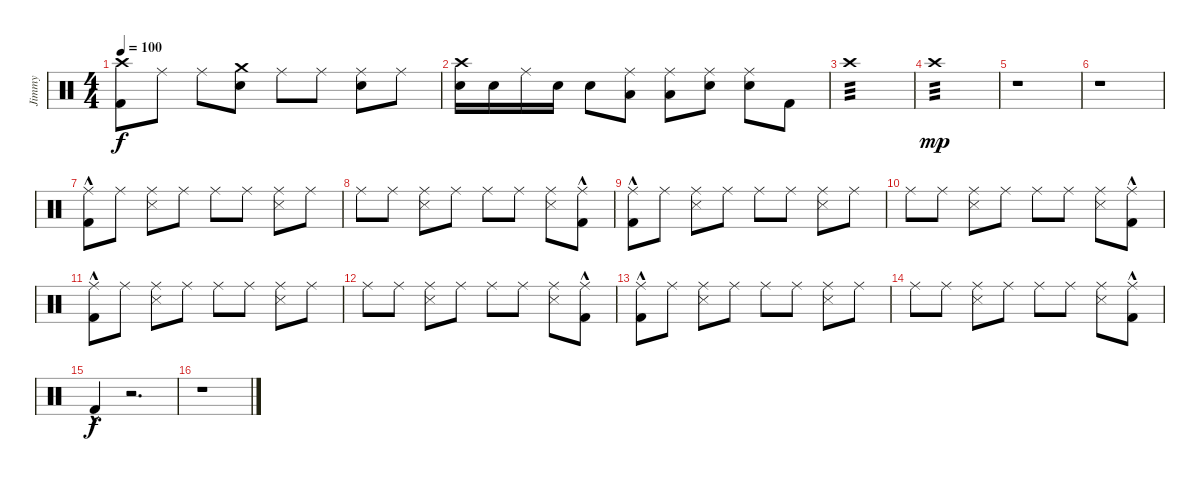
\track ("Jimmy" "Jimmy") {instrument percussion}
\staff {score}
\articulation defaults
\ts (4 4)
\tempo 100
\clef neutral
\ks c
("Crash high (hit)" "Kick (hit) 2").8{dy f} "Ride (middle)".8 "Ride (middle)".8 ("Crash medium (hit)" "Snare (hit) 2").8 "Ride (middle)".8 "Ride (middle)".8 ("Ride (middle)" "Snare (hit) 2").8 "Ride (middle)".8 |
("Crash high (hit)" "Snare (hit) 2").16 "Snare (hit) 2".16 "Ride (middle)".16 "Snare (hit) 2".16 "Snare (hit) 2".8 ("Ride (middle)" "Low Floor Tom (hit)").8 ("Ride (middle)" "Low Tom (hit)").8 ("Ride (middle)" "Snare (hit) 2").8 ("Ride (middle)" "Snare (hit) 2").8 "Kick (hit) 2".8 |
"Crash high (hit)".1{tp 3} |
"Crash high (hit)".1{tp 3 dy mp} |
r.1 |
r.1 |
("Ride (middle)" "Kick (hit) 2"{hac}).8 "Ride (middle)".8 ("Ride (middle)" "Metronome (hit)").8 "Ride (middle)".8 "Ride (middle)".8 "Ride (middle)".8 ("Ride (middle)" "Metronome (hit)").8 "Ride (middle)".8 |
"Ride (middle)".8 "Ride (middle)".8 ("Ride (middle)" "Metronome (hit)").8 "Ride (middle)".8 "Ride (middle)".8 "Ride (middle)".8 ("Ride (middle)" "Metronome (hit)").8 ("Ride (middle)" "Kick (hit) 2"{hac}).8 |
("Ride (middle)" "Kick (hit) 2"{hac}).8 "Ride (middle)".8 ("Ride (middle)" "Metronome (hit)").8 "Ride (middle)".8 "Ride (middle)".8 "Ride (middle)".8 ("Ride (middle)" "Metronome (hit)").8 "Ride (middle)".8 |
"Ride (middle)".8 "Ride (middle)".8 ("Ride (middle)" "Metronome (hit)").8 "Ride (middle)".8 "Ride (middle)".8 "Ride (middle)".8 ("Ride (middle)" "Metronome (hit)").8 ("Ride (middle)" "Kick (hit) 2"{hac}).8 |
("Ride (middle)" "Kick (hit) 2"{hac}).8 "Ride (middle)".8 ("Ride (middle)" "Metronome (hit)").8 "Ride (middle)".8 "Ride (middle)".8 "Ride (middle)".8 ("Ride (middle)" "Metronome (hit)").8 "Ride (middle)".8 |
"Ride (middle)".8 "Ride (middle)".8 ("Ride (middle)" "Metronome (hit)").8 "Ride (middle)".8 "Ride (middle)".8 "Ride (middle)".8 ("Ride (middle)" "Metronome (hit)").8 ("Ride (middle)" "Kick (hit) 2"{hac}).8 |
("Ride (middle)" "Kick (hit) 2"{hac}).8 "Ride (middle)".8 ("Ride (middle)" "Metronome (hit)").8 "Ride (middle)".8 "Ride (middle)".8 "Ride (middle)".8 ("Ride (middle)" "Metronome (hit)").8 "Ride (middle)".8 |
"Ride (middle)".8 "Ride (middle)".8 ("Ride (middle)" "Metronome (hit)").8 "Ride (middle)".8 "Ride (middle)".8 "Ride (middle)".8 ("Ride (middle)" "Metronome (hit)").8 ("Ride (middle)" "Kick (hit) 2"{hac}).8 |
"Kick (hit) 2"{hac}.4{dy f} r.2{d} |
r.1
